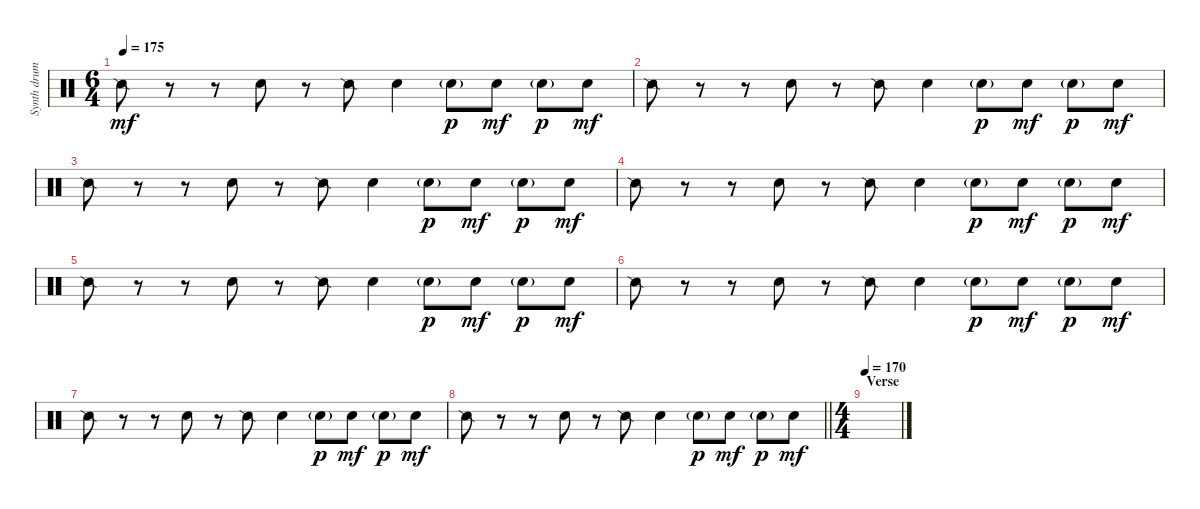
\track ("Synth drums" "Synth drum") {instrument percussion}
\staff {score}
\articulation defaults
\ts (6 4)
\tempo 175
\clef neutral
\ks c "Snare (side stick) 2".8{dy mf}
r.8 r.8 "Hand Clap (hit)".8 r.8 "Snare (side stick) 2".8 "Hand Clap (hit)".4 "Hand Clap (hit)"{g}.8{dy p} "Hand Clap (hit)".8{dy mf} "Hand Clap (hit)"{g}.8{dy p} "Hand Clap (hit)".8{dy mf} |
"Snare (side stick) 2".8 r.8 r.8 "Hand Clap (hit)".8 r.8 "Snare (side stick) 2".8 "Hand Clap (hit)".4 "Hand Clap (hit)"{g}.8{dy p} "Hand Clap (hit)".8{dy mf} "Hand Clap (hit)"{g}.8{dy p} "Hand Clap (hit)".8{dy mf} |
"Snare (side stick) 2".8 r.8 r.8 "Hand Clap (hit)".8 r.8 "Snare (side stick) 2".8 "Hand Clap (hit)".4 "Hand Clap (hit)"{g}.8{dy p} "Hand Clap (hit)".8{dy mf} "Hand Clap (hit)"{g}.8{dy p} "Hand Clap (hit)".8{dy mf} |
"Snare (side stick) 2".8 r.8 r.8 "Hand Clap (hit)".8 r.8 "Snare (side stick) 2".8 "Hand Clap (hit)".4 "Hand Clap (hit)"{g}.8{dy p} "Hand Clap (hit)".8{dy mf} "Hand Clap (hit)"{g}.8{dy p} "Hand Clap (hit)".8{dy mf} |
"Snare (side stick) 2".8 r.8 r.8 "Hand Clap (hit)".8 r.8 "Snare (side stick) 2".8 "Hand Clap (hit)".4 "Hand Clap (hit)"{g}.8{dy p} "Hand Clap (hit)".8{dy mf} "Hand Clap (hit)"{g}.8{dy p} "Hand Clap (hit)".8{dy mf} |
"Snare (side stick) 2".8 r.8 r.8 "Hand Clap (hit)".8 r.8 "Snare (side stick) 2".8 "Hand Clap (hit)".4 "Hand Clap (hit)"{g}.8{dy p} "Hand Clap (hit)".8{dy mf} "Hand Clap (hit)"{g}.8{dy p} "Hand Clap (hit)".8{dy mf} |
"Snare (side stick) 2".8 r.8 r.8 "Hand Clap (hit)".8 r.8 "Snare (side stick) 2".8 "Hand Clap (hit)".4 "Hand Clap (hit)"{g}.8{dy p} "Hand Clap (hit)".8{dy mf} "Hand Clap (hit)"{g}.8{dy p} "Hand Clap (hit)".8{dy mf} |
\barLineRight lightlight "Snare (side stick) 2".8
r.8 r.8 "Hand Clap (hit)".8 r.8 "Snare (side stick) 2".8 "Hand Clap (hit)".4 "Hand Clap (hit)"{g}.8{dy p} "Hand Clap (hit)".8{dy mf} "Hand Clap (hit)"{g}.8{dy p} "Hand Clap (hit)".8{dy mf} |
\ts (4 4)
\section ("" "Verse")
\tempo 170
